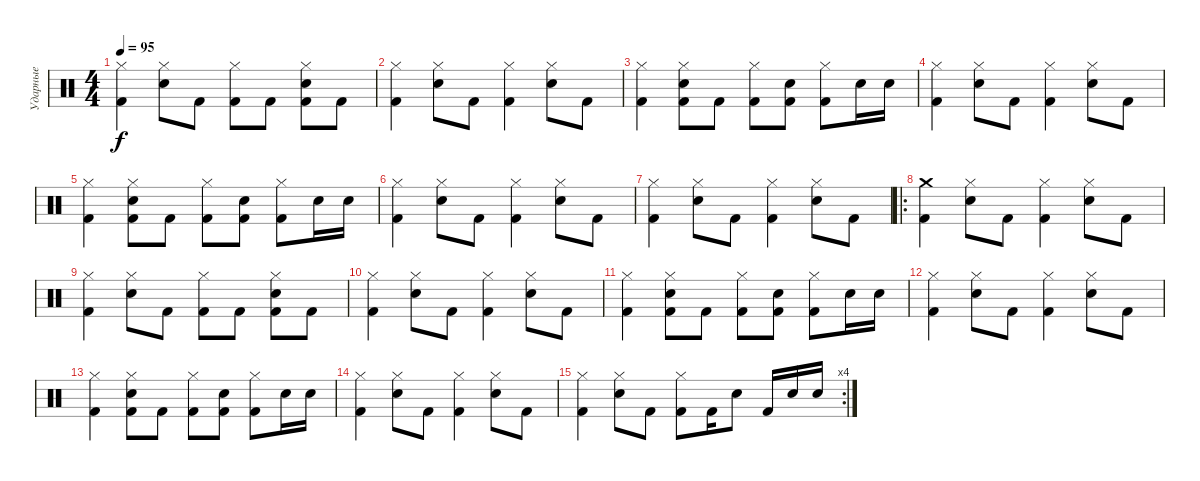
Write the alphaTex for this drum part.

\track ("Ударные" "Ударные") {instrument percussion}
\staff {score}
\articulation defaults
\ts (4 4)
\tempo 95
\clef neutral
\ks c
("Hi-Hat (closed)" "Kick (hit) 2").4{dy f} ("Hi-Hat (closed)" "Snare (hit) 2").8 "Kick (hit) 2".8 ("Hi-Hat (closed)" "Kick (hit) 2").8 "Kick (hit) 2".8 ("Hi-Hat (closed)" "Snare (hit) 2" "Kick (hit) 2").8 "Kick (hit) 2".8 |
("Hi-Hat (closed)" "Kick (hit) 2").4 ("Hi-Hat (closed)" "Snare (hit) 2").8 "Kick (hit) 2".8 ("Hi-Hat (closed)" "Kick (hit) 2").4 ("Hi-Hat (closed)" "Snare (hit) 2").8 "Kick (hit) 2".8 |
("Hi-Hat (closed)" "Kick (hit) 2").4 ("Hi-Hat (closed)" "Snare (hit) 2" "Kick (hit) 2").8 "Kick (hit) 2".8 ("Hi-Hat (closed)" "Kick (hit) 2").8 ("Snare (hit) 2" "Kick (hit) 2").8 ("Hi-Hat (closed)" "Kick (hit) 2").8 "Snare (hit) 2".16 "Snare (hit) 2".16 |
("Hi-Hat (closed)" "Kick (hit) 2").4 ("Hi-Hat (closed)" "Snare (hit) 2").8 "Kick (hit) 2".8 ("Hi-Hat (closed)" "Kick (hit) 2").4 ("Hi-Hat (closed)" "Snare (hit) 2").8 "Kick (hit) 2".8 |
("Hi-Hat (closed)" "Kick (hit) 2").4 ("Hi-Hat (closed)" "Snare (hit) 2" "Kick (hit) 2").8 "Kick (hit) 2".8 ("Hi-Hat (closed)" "Kick (hit) 2").8 ("Snare (hit) 2" "Kick (hit) 2").8 ("Hi-Hat (closed)" "Kick (hit) 2").8 "Snare (hit) 2".16 "Snare (hit) 2".16 |
("Hi-Hat (closed)" "Kick (hit) 2").4 ("Hi-Hat (closed)" "Snare (hit) 2").8 "Kick (hit) 2".8 ("Hi-Hat (closed)" "Kick (hit) 2").4 ("Hi-Hat (closed)" "Snare (hit) 2").8 "Kick (hit) 2".8 |
("Hi-Hat (closed)" "Kick (hit) 2").4 ("Hi-Hat (closed)" "Snare (hit) 2").8 "Kick (hit) 2".8 ("Hi-Hat (closed)" "Kick (hit) 2").4 ("Hi-Hat (closed)" "Snare (hit) 2").8 "Kick (hit) 2".8 |
\ro
("Crash medium (hit)" "Kick (hit) 2").4 ("Hi-Hat (closed)" "Snare (hit) 2").8 "Kick (hit) 2".8 ("Hi-Hat (closed)" "Kick (hit) 2").4 ("Hi-Hat (closed)" "Snare (hit) 2").8 "Kick (hit) 2".8 |
("Hi-Hat (closed)" "Kick (hit) 2").4 ("Hi-Hat (closed)" "Snare (hit) 2").8 "Kick (hit) 2".8 ("Hi-Hat (closed)" "Kick (hit) 2").8 "Kick (hit) 2".8 ("Hi-Hat (closed)" "Snare (hit) 2" "Kick (hit) 2").8 "Kick (hit) 2".8 |
("Hi-Hat (closed)" "Kick (hit) 2").4 ("Hi-Hat (closed)" "Snare (hit) 2").8 "Kick (hit) 2".8 ("Hi-Hat (closed)" "Kick (hit) 2").4 ("Hi-Hat (closed)" "Snare (hit) 2").8 "Kick (hit) 2".8 |
("Hi-Hat (closed)" "Kick (hit) 2").4 ("Hi-Hat (closed)" "Snare (hit) 2" "Kick (hit) 2").8 "Kick (hit) 2".8 ("Hi-Hat (closed)" "Kick (hit) 2").8 ("Snare (hit) 2" "Kick (hit) 2").8 ("Hi-Hat (closed)" "Kick (hit) 2").8 "Snare (hit) 2".16 "Snare (hit) 2".16 |
("Hi-Hat (closed)" "Kick (hit) 2").4 ("Hi-Hat (closed)" "Snare (hit) 2").8 "Kick (hit) 2".8 ("Hi-Hat (closed)" "Kick (hit) 2").4 ("Hi-Hat (closed)" "Snare (hit) 2").8 "Kick (hit) 2".8 |
("Hi-Hat (closed)" "Kick (hit) 2").4 ("Hi-Hat (closed)" "Snare (hit) 2" "Kick (hit) 2").8 "Kick (hit) 2".8 ("Hi-Hat (closed)" "Kick (hit) 2").8 ("Snare (hit) 2" "Kick (hit) 2").8 ("Hi-Hat (closed)" "Kick (hit) 2").8 "Snare (hit) 2".16 "Snare (hit) 2".16 |
("Hi-Hat (closed)" "Kick (hit) 2").4 ("Hi-Hat (closed)" "Snare (hit) 2").8 "Kick (hit) 2".8 ("Hi-Hat (closed)" "Kick (hit) 2").4 ("Hi-Hat (closed)" "Snare (hit) 2").8 "Kick (hit) 2".8 |
\rc 4
("Hi-Hat (closed)" "Kick (hit) 2").4 ("Hi-Hat (closed)" "Snare (hit) 2").8 "Kick (hit) 2".8 ("Hi-Hat (closed)" "Kick (hit) 2").8 "Kick (hit) 2".16 "Snare (hit) 2".8 "Kick (hit) 2".16 "Snare (hit) 2".16 "Snare (hit) 2".16
